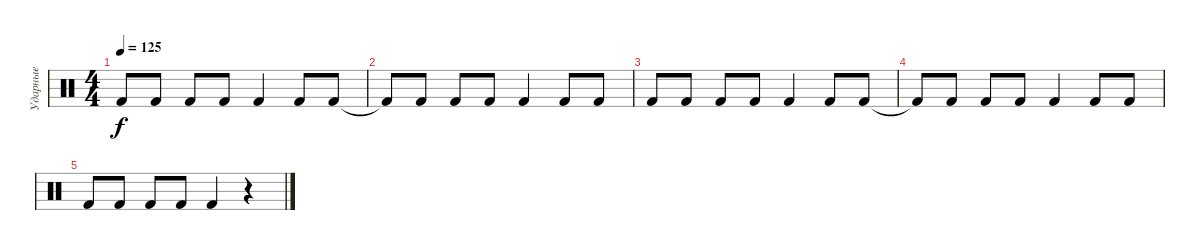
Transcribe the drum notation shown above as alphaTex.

\track ("Ударные" "Ударные") {instrument percussion}
\staff {score}
\articulation defaults
\ts (4 4)
\tempo 125
\clef neutral
\ks c "Kick (hit) 2".8{dy f} "Kick (hit) 2".8 "Kick (hit) 2".8 "Kick (hit) 2".8 "Kick (hit) 2".4 "Kick (hit) 2".8 "Kick (hit) 2".8
|
"Kick (hit) 2"{t}.8 "Kick (hit) 2".8 "Kick (hit) 2".8 "Kick (hit) 2".8 "Kick (hit) 2".4 "Kick (hit) 2".8 "Kick (hit) 2".8 |
"Kick (hit) 2".8 "Kick (hit) 2".8 "Kick (hit) 2".8 "Kick (hit) 2".8 "Kick (hit) 2".4 "Kick (hit) 2".8 "Kick (hit) 2".8 |
"Kick (hit) 2"{t}.8 "Kick (hit) 2".8 "Kick (hit) 2".8 "Kick (hit) 2".8 "Kick (hit) 2".4 "Kick (hit) 2".8 "Kick (hit) 2".8 |
"Kick (hit) 2".8 "Kick (hit) 2".8 "Kick (hit) 2".8 "Kick (hit) 2".8 "Kick (hit) 2".4 r.4
